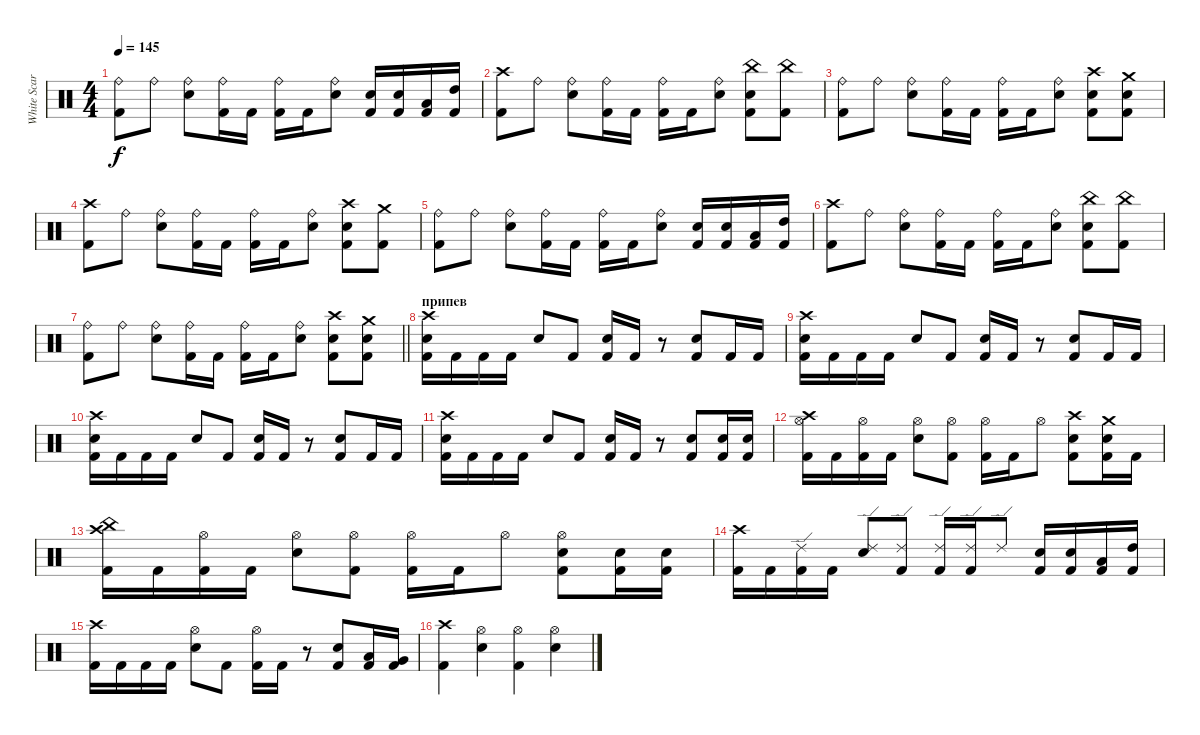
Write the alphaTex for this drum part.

\track ("White Scar" "White Scar") {instrument percussion}
\staff {score}
\articulation defaults
\ts (4 4)
\tempo 145
\clef neutral
\ks c
("Ride (bell)" "Kick (hit) 2").8{dy f} "Ride (bell)".8 ("Ride (bell)" "Snare (hit) 2").8 ("Ride (bell)" "Kick (hit) 2").16 "Kick (hit) 2".16 ("Ride (bell)" "Kick (hit) 2").16 "Kick (hit) 2".16 ("Ride (bell)" "Snare (hit) 2").8 ("Snare (hit) 2" "Kick (hit) 2").16 ("Snare (hit) 2" "Kick (hit) 2").16 ("Low Tom (hit)" "Kick (hit) 2").16 ("High Tom (hit)" "Kick (hit) 2").16 |
("Crash high (hit)" "Kick (hit) 2").8 "Ride (bell)".8 ("Ride (bell)" "Snare (hit) 2").8 ("Ride (bell)" "Kick (hit) 2").16 "Kick (hit) 2".16 ("Ride (bell)" "Kick (hit) 2").16 "Kick (hit) 2".16 ("Ride (bell)" "Snare (hit) 2").8 ("China (hit)" "Snare (hit) 2" "Kick (hit) 2").8 ("China (hit)" "Kick (hit) 2").8 |
("Ride (bell)" "Kick (hit) 2").8 "Ride (bell)".8 ("Ride (bell)" "Snare (hit) 2").8 ("Ride (bell)" "Kick (hit) 2").16 "Kick (hit) 2".16 ("Ride (bell)" "Kick (hit) 2").16 "Kick (hit) 2".16 ("Ride (bell)" "Snare (hit) 2").8 ("Crash high (hit)" "Snare (hit) 2" "Kick (hit) 2").8 ("Crash medium (hit)" "Snare (hit) 2" "Kick (hit) 2").8 |
("Crash high (hit)" "Kick (hit) 2").8 "Ride (bell)".8 ("Ride (bell)" "Snare (hit) 2").8 ("Ride (bell)" "Kick (hit) 2").16 "Kick (hit) 2".16 ("Ride (bell)" "Kick (hit) 2").16 "Kick (hit) 2".16 ("Ride (bell)" "Snare (hit) 2").8 ("Crash high (hit)" "Snare (hit) 2" "Kick (hit) 2").8 ("Crash medium (hit)" "Kick (hit) 2").8 |
("Ride (bell)" "Kick (hit) 2").8 "Ride (bell)".8 ("Ride (bell)" "Snare (hit) 2").8 ("Ride (bell)" "Kick (hit) 2").16 "Kick (hit) 2".16 ("Ride (bell)" "Kick (hit) 2").16 "Kick (hit) 2".16 ("Ride (bell)" "Snare (hit) 2").8 ("Snare (hit) 2" "Kick (hit) 2").16 ("Snare (hit) 2" "Kick (hit) 2").16 ("Low Tom (hit)" "Kick (hit) 2").16 ("High Tom (hit)" "Kick (hit) 2").16 |
("Crash high (hit)" "Kick (hit) 2").8 "Ride (bell)".8 ("Ride (bell)" "Snare (hit) 2").8 ("Ride (bell)" "Kick (hit) 2").16 "Kick (hit) 2".16 ("Ride (bell)" "Kick (hit) 2").16 "Kick (hit) 2".16 ("Ride (bell)" "Snare (hit) 2").8 ("China (hit)" "Snare (hit) 2" "Kick (hit) 2").8 ("China (hit)" "Kick (hit) 2").8 |
\barLineRight lightlight
("Ride (bell)" "Kick (hit) 2").8 "Ride (bell)".8 ("Ride (bell)" "Snare (hit) 2").8 ("Ride (bell)" "Kick (hit) 2").16 "Kick (hit) 2".16 ("Ride (bell)" "Kick (hit) 2").16 "Kick (hit) 2".16 ("Ride (bell)" "Snare (hit) 2").8 ("Crash high (hit)" "Snare (hit) 2" "Kick (hit) 2").8 ("Crash medium (hit)" "Snare (hit) 2" "Kick (hit) 2").8 |
\section ("" "припев")
("Crash high (hit)" "Snare (hit) 2" "Kick (hit) 2").16 "Kick (hit) 2".16 "Kick (hit) 2".16 "Kick (hit) 2".16 "Snare (hit) 2".8 "Kick (hit) 2".8 ("Snare (hit) 2" "Kick (hit) 2").16 "Kick (hit) 2".16 r.8 ("Snare (hit) 2" "Kick (hit) 2").8 "Kick (hit) 2".16 "Kick (hit) 2".16 |
("Crash high (hit)" "Snare (hit) 2" "Kick (hit) 2").16 "Kick (hit) 2".16 "Kick (hit) 2".16 "Kick (hit) 2".16 "Snare (hit) 2".8 "Kick (hit) 2".8 ("Snare (hit) 2" "Kick (hit) 2").16 "Kick (hit) 2".16 r.8 ("Snare (hit) 2" "Kick (hit) 2").8 "Kick (hit) 2".16 "Kick (hit) 2".16 |
("Crash high (hit)" "Snare (hit) 2" "Kick (hit) 2").16 "Kick (hit) 2".16 "Kick (hit) 2".16 "Kick (hit) 2".16 "Snare (hit) 2".8 "Kick (hit) 2".8 ("Snare (hit) 2" "Kick (hit) 2").16 "Kick (hit) 2".16 r.8 ("Snare (hit) 2" "Kick (hit) 2").8 "Kick (hit) 2".16 "Kick (hit) 2".16 |
("Crash high (hit)" "Snare (hit) 2" "Kick (hit) 2").16 "Kick (hit) 2".16 "Kick (hit) 2".16 "Kick (hit) 2".16 "Snare (hit) 2".8 "Kick (hit) 2".8 ("Snare (hit) 2" "Kick (hit) 2").16 "Kick (hit) 2".16 r.8 ("Snare (hit) 2" "Kick (hit) 2").8 ("Snare (hit) 2" "Kick (hit) 2").16 ("Snare (hit) 2" "Kick (hit) 2").16 |
("Crash high (hit)" "Hi-Hat (open)" "Kick (hit) 2").16 "Kick (hit) 2".16 ("Hi-Hat (open)" "Kick (hit) 2").16 "Kick (hit) 2".16 ("Snare (hit) 2" "Hi-Hat (open)").8 ("Hi-Hat (open)" "Kick (hit) 2").8 ("Hi-Hat (open)" "Kick (hit) 2").16 "Kick (hit) 2".16 "Hi-Hat (open)".8 ("Snare (hit) 2" "Crash high (hit)" "Kick (hit) 2").8 ("Snare (hit) 2" "Crash medium (hit)" "Kick (hit) 2").16 "Kick (hit) 2".16 |
("Crash high (hit)" "China (hit)" "Kick (hit) 2").16 "Kick (hit) 2".16 ("Hi-Hat (open)" "Kick (hit) 2").16 "Kick (hit) 2".16 ("Snare (hit) 2" "Hi-Hat (open)").8 ("Hi-Hat (open)" "Kick (hit) 2").8 ("Hi-Hat (open)" "Kick (hit) 2").16 "Kick (hit) 2".16 "Hi-Hat (open)".8 ("Snare (hit) 2" "Hi-Hat (open)" "Kick (hit) 2").8 ("Snare (hit) 2" "Kick (hit) 2").16 ("Snare (hit) 2" "Kick (hit) 2").16 |
("Crash high (hit)" "Kick (hit) 2").16 "Kick (hit) 2".16 ("Ride (edge) 2" "Kick (hit) 2").16 "Kick (hit) 2".16 ("Snare (hit) 2" "Ride (edge) 2").8 ("Ride (edge) 2" "Kick (hit) 2").8 ("Ride (edge) 2" "Kick (hit) 2").16 ("Ride (edge) 2" "Kick (hit) 2").16 "Ride (edge) 2".8 ("Snare (hit) 2" "Kick (hit) 2").16 ("Snare (hit) 2" "Kick (hit) 2").16 ("Low Tom (hit)" "Kick (hit) 2").16 ("High Tom (hit)" "Kick (hit) 2").16 |
("Crash high (hit)" "Kick (hit) 2").16 "Kick (hit) 2".16 "Kick (hit) 2".16 "Kick (hit) 2".16 ("Snare (hit) 2" "Hi-Hat (open)").8 "Kick (hit) 2".8 ("Hi-Hat (open)" "Kick (hit) 2").16 "Kick (hit) 2".16 r.8 ("Snare (hit) 2" "Kick (hit) 2").8 ("Low Tom (hit)" "Kick (hit) 2").16 ("Very Low Tom (hit)" "Kick (hit) 2").16 |
("Crash high (hit)" "Kick (hit) 2").4 ("Hi-Hat (open)" "Snare (hit) 2").4 ("Hi-Hat (open)" "Kick (hit) 2").4 ("Hi-Hat (open)" "Snare (hit) 2").4
